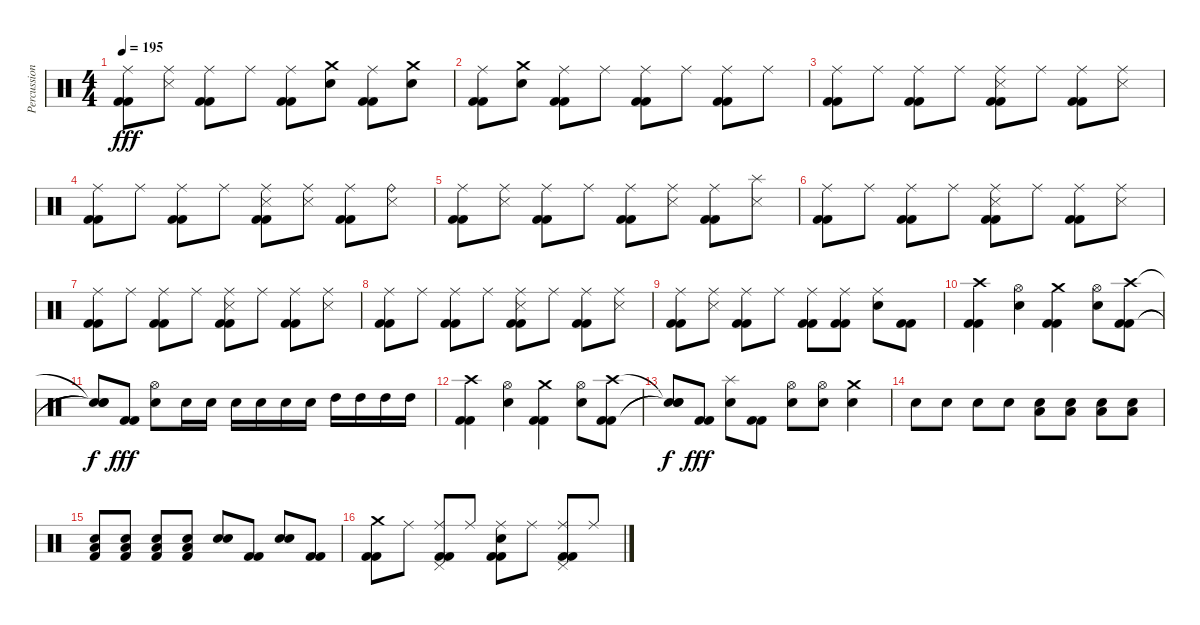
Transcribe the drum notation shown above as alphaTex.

\track ("Percussions" "Percussion") {instrument percussion}
\staff {score}
\articulation defaults
\ts (4 4)
\tempo 195
\clef neutral
\ks c
("Ride (middle)" "Kick (hit) 2" "Kick (hit) 2").8{dy fff} ("Ride (middle)" "Snare (side stick) 3").8 ("Ride (middle)" "Kick (hit) 2" "Kick (hit) 2").8 "Ride (middle)".8 ("Ride (middle)" "Kick (hit) 2" "Kick (hit) 2").8 ("Crash medium (hit)" "Electric Snare (hit)").8 ("Ride (middle)" "Kick (hit) 2" "Kick (hit) 2").8 ("Crash medium (hit)" "Electric Snare (hit)").8 |
("Ride (middle)" "Kick (hit) 2" "Kick (hit) 2").8 ("Crash medium (hit)" "Electric Snare (hit)").8 ("Ride (middle)" "Kick (hit) 2" "Kick (hit) 2").8 "Ride (middle)".8 ("Ride (middle)" "Kick (hit) 2" "Kick (hit) 2").8 "Ride (middle)".8 ("Ride (middle)" "Kick (hit) 2" "Kick (hit) 2").8 "Ride (middle)".8 |
("Ride (middle)" "Kick (hit) 2" "Kick (hit) 2").8 "Ride (middle)".8 ("Ride (middle)" "Kick (hit) 2" "Kick (hit) 2").8 "Ride (middle)".8 ("Ride (middle)" "Snare (side stick) 3" "Kick (hit) 2" "Kick (hit) 2").8 "Ride (middle)".8 ("Ride (middle)" "Kick (hit) 2" "Kick (hit) 2").8 ("Ride (middle)" "Snare (side stick) 3").8 |
("Ride (middle)" "Kick (hit) 2" "Kick (hit) 2").8 "Ride (middle)".8 ("Ride (middle)" "Kick (hit) 2" "Kick (hit) 2").8 "Ride (middle)".8 ("Ride (middle)" "Snare (side stick) 3" "Kick (hit) 2" "Kick (hit) 2").8 ("Ride (middle)" "Snare (side stick) 3").8 ("Ride (middle)" "Kick (hit) 2" "Kick (hit) 2").8 ("Ride (bell)" "Snare (side stick) 3").8 |
("Ride (middle)" "Kick (hit) 2" "Kick (hit) 2").8 ("Ride (middle)" "Snare (side stick) 3").8 ("Ride (middle)" "Kick (hit) 2" "Kick (hit) 2").8 "Ride (middle)".8 ("Ride (middle)" "Kick (hit) 2" "Kick (hit) 2").8 ("Ride (middle)" "Snare (side stick) 3").8 ("Ride (middle)" "Kick (hit) 2" "Kick (hit) 2").8 ("Splash (hit)" "Snare (side stick) 3").8 |
("Ride (middle)" "Kick (hit) 2" "Kick (hit) 2").8 "Ride (middle)".8 ("Ride (middle)" "Kick (hit) 2" "Kick (hit) 2").8 "Ride (middle)".8 ("Ride (middle)" "Snare (side stick) 3" "Kick (hit) 2" "Kick (hit) 2").8 "Ride (middle)".8 ("Ride (middle)" "Kick (hit) 2" "Kick (hit) 2").8 ("Ride (middle)" "Snare (side stick) 3").8 |
("Ride (middle)" "Kick (hit) 2" "Kick (hit) 2").8 "Ride (middle)".8 ("Ride (middle)" "Kick (hit) 2" "Kick (hit) 2").8 "Ride (middle)".8 ("Ride (middle)" "Snare (side stick) 3" "Kick (hit) 2" "Kick (hit) 2").8 "Ride (middle)".8 ("Ride (middle)" "Kick (hit) 2" "Kick (hit) 2").8 ("Ride (middle)" "Snare (side stick) 3").8 |
("Ride (middle)" "Kick (hit) 2" "Kick (hit) 2").8 "Ride (middle)".8 ("Ride (middle)" "Kick (hit) 2" "Kick (hit) 2").8 "Ride (middle)".8 ("Ride (middle)" "Snare (side stick) 3" "Kick (hit) 2" "Kick (hit) 2").8 "Ride (middle)".8 ("Ride (middle)" "Kick (hit) 2" "Kick (hit) 2").8 ("Ride (middle)" "Snare (side stick) 3").8 |
("Ride (middle)" "Kick (hit) 2" "Kick (hit) 2").8 ("Ride (middle)" "Snare (side stick) 3").8 ("Ride (middle)" "Kick (hit) 2" "Kick (hit) 2").8 "Ride (middle)".8 ("Ride (middle)" "Kick (hit) 2" "Kick (hit) 2").8 ("Ride (middle)" "Kick (hit) 2" "Kick (hit) 2").8 ("Ride (middle)" "Electric Snare (hit)").8 ("Kick (hit) 2" "Kick (hit) 2").8 |
("Crash high (hit)" "Kick (hit) 2" "Kick (hit) 2").4 ("Hi-Hat (open)" "Electric Snare (hit)").4 ("Crash medium (hit)" "Kick (hit) 2" "Kick (hit) 2").4 ("Hi-Hat (open)" "Electric Snare (hit)").8 ("Crash high (hit)" "Kick (hit) 2" "Kick (hit) 2").8 |
("Snare (hit)"{t} "Snare (hit)"{t} "Snare (hit)"{t}).8{dy f} ("Kick (hit) 2" "Kick (hit) 2").8{dy fff} ("Hi-Hat (open)" "Electric Snare (hit)").8 "Electric Snare (hit)".16 "Electric Snare (hit)".16 "Electric Snare (hit)".16 "Electric Snare (hit)".16 "Electric Snare (hit)".16 "Electric Snare (hit)".16 "High Tom (hit)".16 "High Tom (hit)".16 "High Tom (hit)".16 "High Tom (hit)".16 |
("Crash high (hit)" "Kick (hit) 2" "Kick (hit) 2").4 ("Hi-Hat (open)" "Electric Snare (hit)").4 ("Crash medium (hit)" "Kick (hit) 2" "Kick (hit) 2").4 ("Hi-Hat (open)" "Electric Snare (hit)").8 ("Crash high (hit)" "Kick (hit) 2" "Kick (hit) 2").8 |
("Snare (hit)"{t} "Snare (hit)"{t} "Snare (hit)"{t}).8{dy f} ("Kick (hit) 2" "Kick (hit) 2").8{dy fff} ("Splash (hit)" "Electric Snare (hit)").8 ("Kick (hit) 2" "Kick (hit) 2").8 ("Hi-Hat (open)" "Electric Snare (hit)").8 ("Hi-Hat (open)" "Electric Snare (hit)").8 ("Crash medium (hit)" "Electric Snare (hit)").4 |
"Electric Snare (hit)".8 "Electric Snare (hit)".8 "Electric Snare (hit)".8 "Electric Snare (hit)".8 ("Low Floor Tom (hit)" "Electric Snare (hit)").8 ("Low Floor Tom (hit)" "Electric Snare (hit)").8 ("Low Floor Tom (hit)" "Electric Snare (hit)").8 ("Low Floor Tom (hit)" "Electric Snare (hit)").8 |
("Low Floor Tom (hit)" "Electric Snare (hit)" "Kick (hit) 2").8 ("Low Floor Tom (hit)" "Electric Snare (hit)" "Kick (hit) 2").8 ("Low Floor Tom (hit)" "Electric Snare (hit)" "Kick (hit) 2").8 ("Low Floor Tom (hit)" "Electric Snare (hit)" "Kick (hit) 2").8 ("Electric Snare (hit)" "Electric Snare (hit)").8 ("Kick (hit) 2" "Kick (hit) 2").8 ("Electric Snare (hit)" "Electric Snare (hit)").8 ("Kick (hit) 2" "Kick (hit) 2").8 |
("Crash medium (hit)" "Kick (hit) 2" "Kick (hit) 2").8 "Ride (middle)".8 ("Ride (middle)" "Pedal Hi-Hat (hit)" "Kick (hit) 2" "Kick (hit) 2").8 "Ride (middle)".8 ("Ride (middle)" "Electric Snare (hit)" "Kick (hit) 2" "Kick (hit) 2").8 "Ride (middle)".8 ("Ride (middle)" "Pedal Hi-Hat (hit)" "Kick (hit) 2" "Kick (hit) 2").8 "Ride (middle)".8
